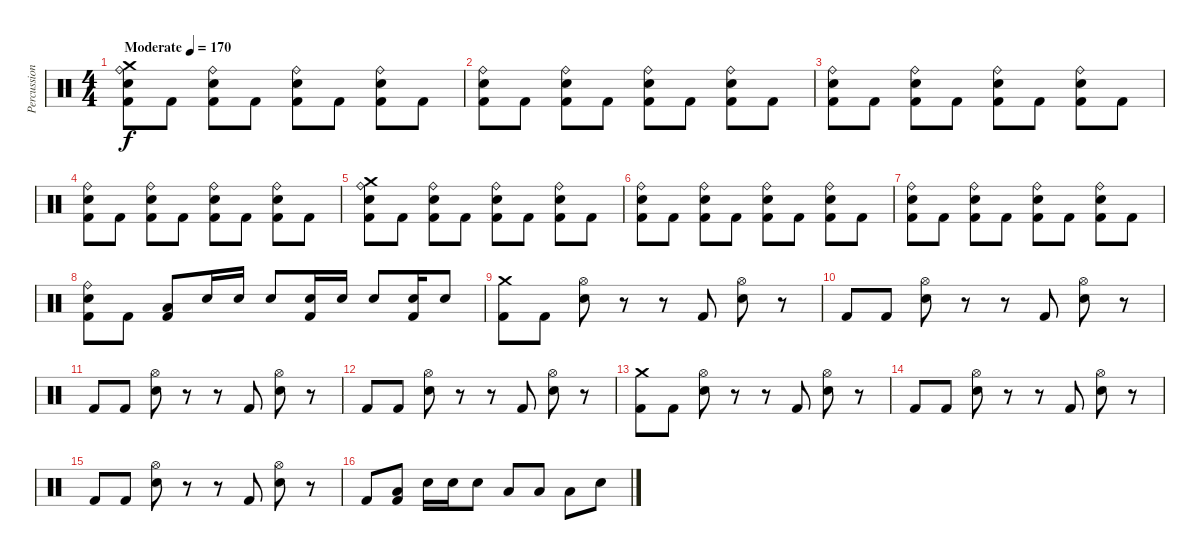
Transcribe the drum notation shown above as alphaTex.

\track ("Percussion" "Percussion") {instrument percussion}
\staff {score}
\articulation defaults
\ts (4 4)
\tempo (170 "Moderate")
\clef neutral
\ks c
("Crash medium (hit)" "Ride (bell)" "Snare (hit) 2" "Kick (hit) 2").8{dy f} "Kick (hit) 2".8 ("Ride (bell)" "Snare (hit) 2" "Kick (hit) 2").8 "Kick (hit) 2".8 ("Ride (bell)" "Snare (hit) 2" "Kick (hit) 2").8 "Kick (hit) 2".8 ("Ride (bell)" "Snare (hit) 2" "Kick (hit) 2").8 "Kick (hit) 2".8 |
("Ride (bell)" "Snare (hit) 2" "Kick (hit) 2").8 "Kick (hit) 2".8 ("Ride (bell)" "Snare (hit) 2" "Kick (hit) 2").8 "Kick (hit) 2".8 ("Ride (bell)" "Snare (hit) 2" "Kick (hit) 2").8 "Kick (hit) 2".8 ("Ride (bell)" "Snare (hit) 2" "Kick (hit) 2").8 "Kick (hit) 2".8 |
("Ride (bell)" "Snare (hit) 2" "Kick (hit) 2").8 "Kick (hit) 2".8 ("Ride (bell)" "Snare (hit) 2" "Kick (hit) 2").8 "Kick (hit) 2".8 ("Ride (bell)" "Snare (hit) 2" "Kick (hit) 2").8 "Kick (hit) 2".8 ("Ride (bell)" "Snare (hit) 2" "Kick (hit) 2").8 "Kick (hit) 2".8 |
("Ride (bell)" "Snare (hit) 2" "Kick (hit) 2").8 "Kick (hit) 2".8 ("Ride (bell)" "Snare (hit) 2" "Kick (hit) 2").8 "Kick (hit) 2".8 ("Ride (bell)" "Snare (hit) 2" "Kick (hit) 2").8 "Kick (hit) 2".8 ("Ride (bell)" "Snare (hit) 2" "Kick (hit) 2").8 "Kick (hit) 2".8 |
("Crash medium (hit)" "Ride (bell)" "Snare (hit) 2" "Kick (hit) 2").8 "Kick (hit) 2".8 ("Ride (bell)" "Snare (hit) 2" "Kick (hit) 2").8 "Kick (hit) 2".8 ("Ride (bell)" "Snare (hit) 2" "Kick (hit) 2").8 "Kick (hit) 2".8 ("Ride (bell)" "Snare (hit) 2" "Kick (hit) 2").8 "Kick (hit) 2".8 |
("Ride (bell)" "Snare (hit) 2" "Kick (hit) 2").8 "Kick (hit) 2".8 ("Ride (bell)" "Snare (hit) 2" "Kick (hit) 2").8 "Kick (hit) 2".8 ("Ride (bell)" "Snare (hit) 2" "Kick (hit) 2").8 "Kick (hit) 2".8 ("Ride (bell)" "Snare (hit) 2" "Kick (hit) 2").8 "Kick (hit) 2".8 |
("Ride (bell)" "Snare (hit) 2" "Kick (hit) 2").8 "Kick (hit) 2".8 ("Ride (bell)" "Snare (hit) 2" "Kick (hit) 2").8 "Kick (hit) 2".8 ("Ride (bell)" "Snare (hit) 2" "Kick (hit) 2").8 "Kick (hit) 2".8 ("Ride (bell)" "Snare (hit) 2" "Kick (hit) 2").8 "Kick (hit) 2".8 |
("Ride (bell)" "Snare (hit) 2" "Kick (hit) 2").8 "Kick (hit) 2".8 ("Low Floor Tom (hit)" "Kick (hit) 2").8 "Snare (hit) 2".16 "Snare (hit) 2".16 "Snare (hit) 2".8 ("Snare (hit) 2" "Kick (hit) 2").16 "Snare (hit) 2".16 "Snare (hit) 2".8 ("Snare (hit) 2" "Kick (hit) 2").16 "Snare (hit) 2".8 |
("Crash medium (hit)" "Kick (hit) 2").8 "Kick (hit) 2".8 ("Hi-Hat (open)" "Snare (hit) 2").8 r.8 r.8 "Kick (hit) 2".8 ("Hi-Hat (open)" "Snare (hit) 2").8 r.8 |
"Kick (hit) 2".8 "Kick (hit) 2".8 ("Hi-Hat (open)" "Snare (hit) 2").8 r.8 r.8 "Kick (hit) 2".8 ("Hi-Hat (open)" "Snare (hit) 2").8 r.8 |
"Kick (hit) 2".8 "Kick (hit) 2".8 ("Hi-Hat (open)" "Snare (hit) 2").8 r.8 r.8 "Kick (hit) 2".8 ("Hi-Hat (open)" "Snare (hit) 2").8 r.8 |
"Kick (hit) 2".8 "Kick (hit) 2".8 ("Hi-Hat (open)" "Snare (hit) 2").8 r.8 r.8 "Kick (hit) 2".8 ("Hi-Hat (open)" "Snare (hit) 2").8 r.8 |
("Crash medium (hit)" "Kick (hit) 2").8 "Kick (hit) 2".8 ("Hi-Hat (open)" "Snare (hit) 2").8 r.8 r.8 "Kick (hit) 2".8 ("Hi-Hat (open)" "Snare (hit) 2").8 r.8 |
"Kick (hit) 2".8 "Kick (hit) 2".8 ("Hi-Hat (open)" "Snare (hit) 2").8 r.8 r.8 "Kick (hit) 2".8 ("Hi-Hat (open)" "Snare (hit) 2").8 r.8 |
"Kick (hit) 2".8 "Kick (hit) 2".8 ("Hi-Hat (open)" "Snare (hit) 2").8 r.8 r.8 "Kick (hit) 2".8 ("Hi-Hat (open)" "Snare (hit) 2").8 r.8 |
"Kick (hit) 2".8 ("Low Floor Tom (hit)" "Kick (hit) 2").8 "Snare (hit) 2".16 "Snare (hit) 2".16 "Snare (hit) 2".8 "Low Tom (hit)".8 "Low Tom (hit)".8 "Low Tom (hit)".8 "Snare (hit) 2".8
